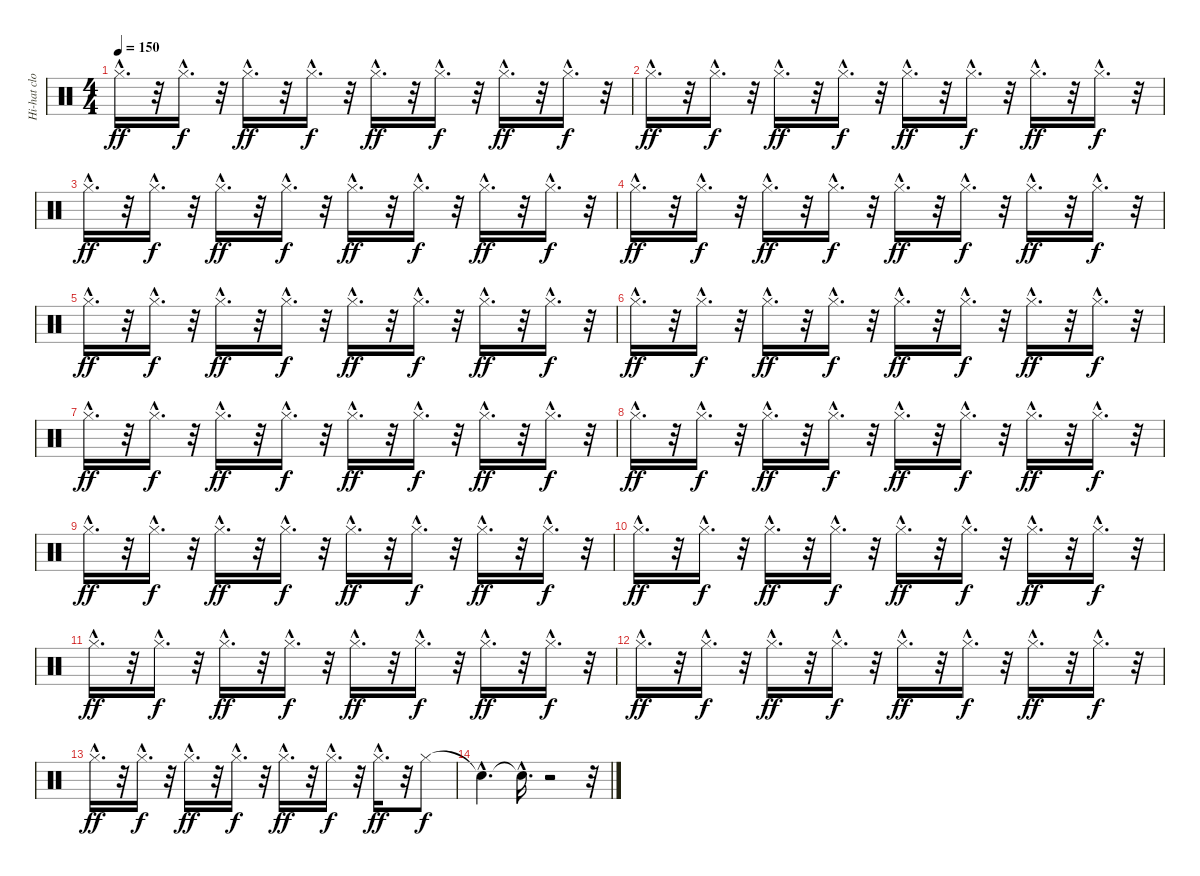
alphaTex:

\track ("Hi-hat closed" "Hi-hat clo") {instrument percussion}
\staff {score}
\articulation defaults
\ts (4 4)
\tempo 150
\clef neutral
\ks c "Hi-Hat (closed)"{hac}.16{d dy ff}
r.32 "Hi-Hat (closed)"{hac}.16{d dy f} r.32 "Hi-Hat (closed)"{hac}.16{d dy ff} r.32 "Hi-Hat (closed)"{hac}.16{d dy f} r.32 "Hi-Hat (closed)"{hac}.16{d dy ff} r.32 "Hi-Hat (closed)"{hac}.16{d dy f} r.32 "Hi-Hat (closed)"{hac}.16{d dy ff} r.32 "Hi-Hat (closed)"{hac}.16{d dy f} r.32 |
"Hi-Hat (closed)"{hac}.16{d dy ff} r.32 "Hi-Hat (closed)"{hac}.16{d dy f} r.32 "Hi-Hat (closed)"{hac}.16{d dy ff} r.32 "Hi-Hat (closed)"{hac}.16{d dy f} r.32 "Hi-Hat (closed)"{hac}.16{d dy ff} r.32 "Hi-Hat (closed)"{hac}.16{d dy f} r.32 "Hi-Hat (closed)"{hac}.16{d dy ff} r.32 "Hi-Hat (closed)"{hac}.16{d dy f} r.32 |
"Hi-Hat (closed)"{hac}.16{d dy ff} r.32 "Hi-Hat (closed)"{hac}.16{d dy f} r.32 "Hi-Hat (closed)"{hac}.16{d dy ff} r.32 "Hi-Hat (closed)"{hac}.16{d dy f} r.32 "Hi-Hat (closed)"{hac}.16{d dy ff} r.32 "Hi-Hat (closed)"{hac}.16{d dy f} r.32 "Hi-Hat (closed)"{hac}.16{d dy ff} r.32 "Hi-Hat (closed)"{hac}.16{d dy f} r.32 |
"Hi-Hat (closed)"{hac}.16{d dy ff} r.32 "Hi-Hat (closed)"{hac}.16{d dy f} r.32 "Hi-Hat (closed)"{hac}.16{d dy ff} r.32 "Hi-Hat (closed)"{hac}.16{d dy f} r.32 "Hi-Hat (closed)"{hac}.16{d dy ff} r.32 "Hi-Hat (closed)"{hac}.16{d dy f} r.32 "Hi-Hat (closed)"{hac}.16{d dy ff} r.32 "Hi-Hat (closed)"{hac}.16{d dy f} r.32 |
"Hi-Hat (closed)"{hac}.16{d dy ff} r.32 "Hi-Hat (closed)"{hac}.16{d dy f} r.32 "Hi-Hat (closed)"{hac}.16{d dy ff} r.32 "Hi-Hat (closed)"{hac}.16{d dy f} r.32 "Hi-Hat (closed)"{hac}.16{d dy ff} r.32 "Hi-Hat (closed)"{hac}.16{d dy f} r.32 "Hi-Hat (closed)"{hac}.16{d dy ff} r.32 "Hi-Hat (closed)"{hac}.16{d dy f} r.32 |
"Hi-Hat (closed)"{hac}.16{d dy ff} r.32 "Hi-Hat (closed)"{hac}.16{d dy f} r.32 "Hi-Hat (closed)"{hac}.16{d dy ff} r.32 "Hi-Hat (closed)"{hac}.16{d dy f} r.32 "Hi-Hat (closed)"{hac}.16{d dy ff} r.32 "Hi-Hat (closed)"{hac}.16{d dy f} r.32 "Hi-Hat (closed)"{hac}.16{d dy ff} r.32 "Hi-Hat (closed)"{hac}.16{d dy f} r.32 |
"Hi-Hat (closed)"{hac}.16{d dy ff} r.32 "Hi-Hat (closed)"{hac}.16{d dy f} r.32 "Hi-Hat (closed)"{hac}.16{d dy ff} r.32 "Hi-Hat (closed)"{hac}.16{d dy f} r.32 "Hi-Hat (closed)"{hac}.16{d dy ff} r.32 "Hi-Hat (closed)"{hac}.16{d dy f} r.32 "Hi-Hat (closed)"{hac}.16{d dy ff} r.32 "Hi-Hat (closed)"{hac}.16{d dy f} r.32 |
"Hi-Hat (closed)"{hac}.16{d dy ff} r.32 "Hi-Hat (closed)"{hac}.16{d dy f} r.32 "Hi-Hat (closed)"{hac}.16{d dy ff} r.32 "Hi-Hat (closed)"{hac}.16{d dy f} r.32 "Hi-Hat (closed)"{hac}.16{d dy ff} r.32 "Hi-Hat (closed)"{hac}.16{d dy f} r.32 "Hi-Hat (closed)"{hac}.16{d dy ff} r.32 "Hi-Hat (closed)"{hac}.16{d dy f} r.32 |
"Hi-Hat (closed)"{hac}.16{d dy ff} r.32 "Hi-Hat (closed)"{hac}.16{d dy f} r.32 "Hi-Hat (closed)"{hac}.16{d dy ff} r.32 "Hi-Hat (closed)"{hac}.16{d dy f} r.32 "Hi-Hat (closed)"{hac}.16{d dy ff} r.32 "Hi-Hat (closed)"{hac}.16{d dy f} r.32 "Hi-Hat (closed)"{hac}.16{d dy ff} r.32 "Hi-Hat (closed)"{hac}.16{d dy f} r.32 |
"Hi-Hat (closed)"{hac}.16{d dy ff} r.32 "Hi-Hat (closed)"{hac}.16{d dy f} r.32 "Hi-Hat (closed)"{hac}.16{d dy ff} r.32 "Hi-Hat (closed)"{hac}.16{d dy f} r.32 "Hi-Hat (closed)"{hac}.16{d dy ff} r.32 "Hi-Hat (closed)"{hac}.16{d dy f} r.32 "Hi-Hat (closed)"{hac}.16{d dy ff} r.32 "Hi-Hat (closed)"{hac}.16{d dy f} r.32 |
"Hi-Hat (closed)"{hac}.16{d dy ff} r.32 "Hi-Hat (closed)"{hac}.16{d dy f} r.32 "Hi-Hat (closed)"{hac}.16{d dy ff} r.32 "Hi-Hat (closed)"{hac}.16{d dy f} r.32 "Hi-Hat (closed)"{hac}.16{d dy ff} r.32 "Hi-Hat (closed)"{hac}.16{d dy f} r.32 "Hi-Hat (closed)"{hac}.16{d dy ff} r.32 "Hi-Hat (closed)"{hac}.16{d dy f} r.32 |
"Hi-Hat (closed)"{hac}.16{d dy ff} r.32 "Hi-Hat (closed)"{hac}.16{d dy f} r.32 "Hi-Hat (closed)"{hac}.16{d dy ff} r.32 "Hi-Hat (closed)"{hac}.16{d dy f} r.32 "Hi-Hat (closed)"{hac}.16{d dy ff} r.32 "Hi-Hat (closed)"{hac}.16{d dy f} r.32 "Hi-Hat (closed)"{hac}.16{d dy ff} r.32 "Hi-Hat (closed)"{hac}.16{d dy f} r.32 |
"Hi-Hat (closed)"{hac}.16{d dy ff} r.32 "Hi-Hat (closed)"{hac}.16{d dy f} r.32 "Hi-Hat (closed)"{hac}.16{d dy ff} r.32 "Hi-Hat (closed)"{hac}.16{d dy f} r.32 "Hi-Hat (closed)"{hac}.16{d dy ff} r.32 "Hi-Hat (closed)"{hac}.16{d dy f} r.32 "Hi-Hat (closed)"{hac}.16{d dy ff} r.32 "Hi-Hat (closed)".8{dy f} |
"Snare (hit)"{hac t}.4{d} "Snare (hit)"{hac t}.16{d} r.2 r.32
